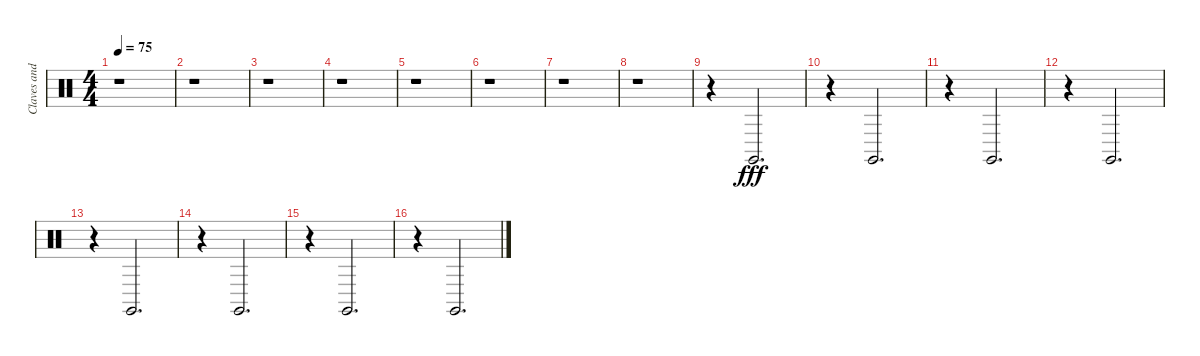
\track ("Claves and Surdo's" "Claves and") {instrument percussion}
\staff {score}
\articulation defaults
\ts (4 4)
\tempo 75
\clef neutral
\ks c
r.1{dy fff} |
r.1 |
r.1 |
r.1 |
r.1 |
r.1 |
r.1 |
r.1 |
r.4 "Claves (hit)".2{d} |
r.4 "Claves (hit)".2{d} |
r.4 "Claves (hit)".2{d} |
r.4 "Claves (hit)".2{d} |
r.4 "Claves (hit)".2{d} |
r.4 "Claves (hit)".2{d} |
r.4 "Claves (hit)".2{d} |
r.4 "Claves (hit)".2{d}
